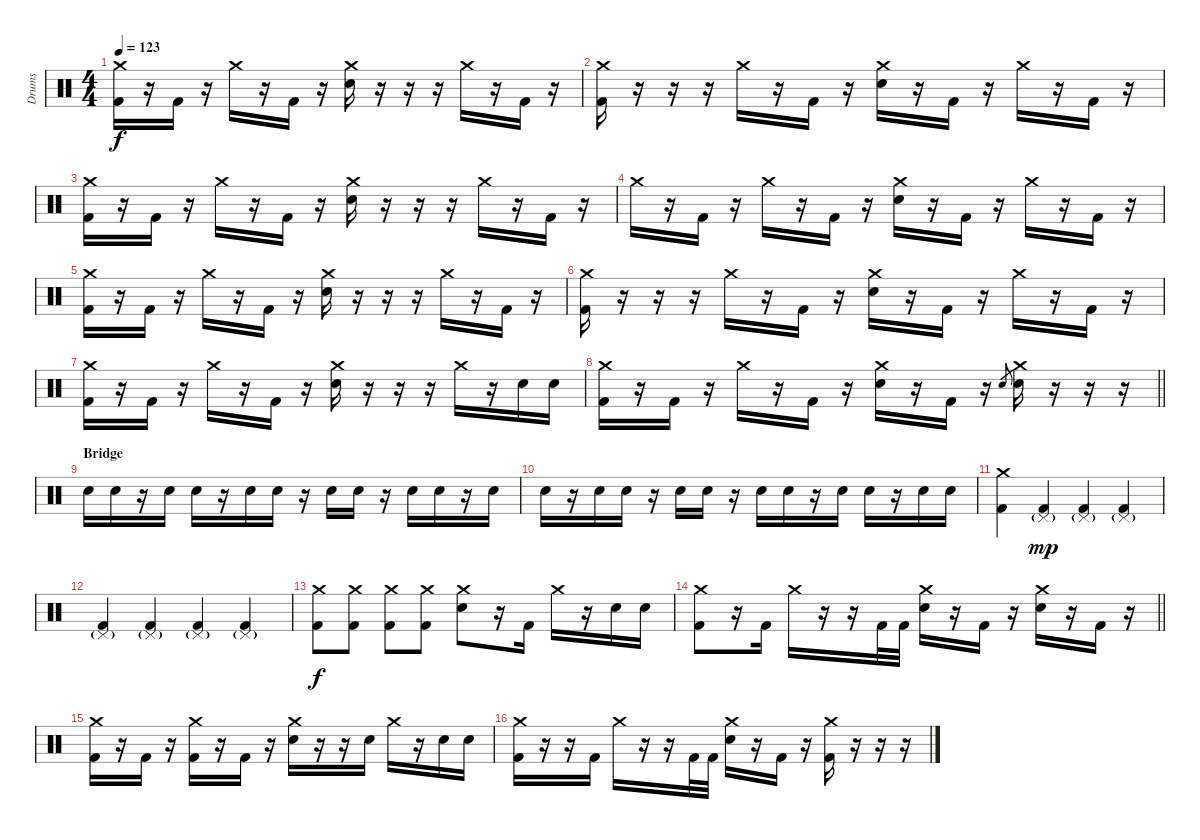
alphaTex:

\track ("Drums" "Drums") {instrument percussion}
\staff {score}
\articulation defaults
\ts (4 4)
\tempo 123
\clef neutral
\ks c
("Crash medium (hit)" "Kick (hit) 2").16{dy f} r.16 "Kick (hit) 2".16 r.16 "Crash medium (hit)".16 r.16 "Kick (hit) 2".16 r.16 ("Crash medium (hit)" "Electric Snare (hit)").16 r.16 r.16 r.16 "Crash medium (hit)".16 r.16 "Kick (hit) 2".16 r.16 |
("Crash medium (hit)" "Kick (hit) 2").16 r.16 r.16 r.16 "Crash medium (hit)".16 r.16 "Kick (hit) 2".16 r.16 ("Crash medium (hit)" "Electric Snare (hit)").16 r.16 "Kick (hit) 2".16 r.16 "Crash medium (hit)".16 r.16 "Kick (hit) 2".16 r.16 |
("Crash medium (hit)" "Kick (hit) 2").16 r.16 "Kick (hit) 2".16 r.16 "Crash medium (hit)".16 r.16 "Kick (hit) 2".16 r.16 ("Crash medium (hit)" "Electric Snare (hit)").16 r.16 r.16 r.16 "Crash medium (hit)".16 r.16 "Kick (hit) 2".16 r.16 |
"Crash medium (hit)".16 r.16 "Kick (hit) 2".16 r.16 "Crash medium (hit)".16 r.16 "Kick (hit) 2".16 r.16 ("Crash medium (hit)" "Electric Snare (hit)").16 r.16 "Kick (hit) 2".16 r.16 "Crash medium (hit)".16 r.16 "Kick (hit) 2".16 r.16 |
("Crash medium (hit)" "Kick (hit) 2").16 r.16 "Kick (hit) 2".16 r.16 "Crash medium (hit)".16 r.16 "Kick (hit) 2".16 r.16 ("Crash medium (hit)" "Electric Snare (hit)").16 r.16 r.16 r.16 "Crash medium (hit)".16 r.16 "Kick (hit) 2".16 r.16 |
("Crash medium (hit)" "Kick (hit) 2").16 r.16 r.16 r.16 "Crash medium (hit)".16 r.16 "Kick (hit) 2".16 r.16 ("Crash medium (hit)" "Electric Snare (hit)").16 r.16 "Kick (hit) 2".16 r.16 "Crash medium (hit)".16 r.16 "Kick (hit) 2".16 r.16 |
("Crash medium (hit)" "Kick (hit) 2").16 r.16 "Kick (hit) 2".16 r.16 "Crash medium (hit)".16 r.16 "Kick (hit) 2".16 r.16 ("Crash medium (hit)" "Electric Snare (hit)").16 r.16 r.16 r.16 "Crash medium (hit)".16 r.16 "Electric Snare (hit)".16 "Electric Snare (hit)".16 |
\barLineRight lightlight
("Crash medium (hit)" "Kick (hit) 2").16 r.16 "Kick (hit) 2".16 r.16 "Crash medium (hit)".16 r.16 "Kick (hit) 2".16 r.16 ("Crash medium (hit)" "Electric Snare (hit)").16 r.16 "Kick (hit) 2".16 r.16 "Electric Snare (hit)".8{gr} ("Crash medium (hit)" "Electric Snare (hit)").16 r.16 r.16 r.16 |
\section ("" "Bridge")
"Electric Snare (hit)".16 "Electric Snare (hit)".16 r.16 "Electric Snare (hit)".16 "Electric Snare (hit)".16 r.16 "Electric Snare (hit)".16 "Electric Snare (hit)".16 r.16 "Electric Snare (hit)".16 "Electric Snare (hit)".16 r.16 "Electric Snare (hit)".16 "Electric Snare (hit)".16 r.16 "Electric Snare (hit)".16 |
"Electric Snare (hit)".16 r.16 "Electric Snare (hit)".16 "Electric Snare (hit)".16 r.16 "Electric Snare (hit)".16 "Electric Snare (hit)".16 r.16 "Electric Snare (hit)".16 "Electric Snare (hit)".16 r.16 "Electric Snare (hit)".16 "Electric Snare (hit)".16 r.16 "Electric Snare (hit)".16 "Electric Snare (hit)".16 |
("Crash medium (hit)" "Kick (hit) 2").4 ("Pedal Hi-Hat (hit)"{g} "Kick (hit) 2").4{dy mp} ("Pedal Hi-Hat (hit)"{g} "Kick (hit) 2").4 ("Pedal Hi-Hat (hit)"{g} "Kick (hit) 2").4 |
("Pedal Hi-Hat (hit)"{g} "Kick (hit) 2").4 ("Pedal Hi-Hat (hit)"{g} "Kick (hit) 2").4 ("Pedal Hi-Hat (hit)"{g} "Kick (hit) 2").4 ("Pedal Hi-Hat (hit)"{g} "Kick (hit) 2").4 |
("Crash medium (hit)" "Kick (hit) 2").8{dy f} ("Crash medium (hit)" "Kick (hit) 2").8 ("Crash medium (hit)" "Kick (hit) 2").8 ("Crash medium (hit)" "Kick (hit) 2").8 ("Crash medium (hit)" "Electric Snare (hit)").8 r.16 "Kick (hit) 2".16 "Crash medium (hit)".16 r.16 "Electric Snare (hit)".16 "Electric Snare (hit)".16 |
\barLineRight lightlight
("Crash medium (hit)" "Kick (hit) 2").8 r.16 "Kick (hit) 2".16 "Crash medium (hit)".16 r.16 r.16 "Kick (hit) 2".32 "Kick (hit) 2".32 ("Crash medium (hit)" "Electric Snare (hit)").16 r.16 "Kick (hit) 2".16 r.16 ("Crash medium (hit)" "Electric Snare (hit)").16 r.16 "Kick (hit) 2".16 r.16 |
\section ("" "")
("Crash medium (hit)" "Kick (hit) 2").16 r.16 "Kick (hit) 2".16 r.16 ("Crash medium (hit)" "Kick (hit) 2").16 r.16 "Kick (hit) 2".16 r.16 ("Crash medium (hit)" "Electric Snare (hit)").16 r.16 r.16 "Electric Snare (hit)".16 "Crash medium (hit)".16 r.16 "Electric Snare (hit)".16 "Electric Snare (hit)".16 |
("Crash medium (hit)" "Kick (hit) 2").16 r.16 r.16 "Kick (hit) 2".16 "Crash medium (hit)".16 r.16 r.16 "Kick (hit) 2".32 "Kick (hit) 2".32 ("Crash medium (hit)" "Electric Snare (hit)").16 r.16 "Kick (hit) 2".16 r.16 ("Crash medium (hit)" "Kick (hit) 2").16 r.16 r.16 r.16
